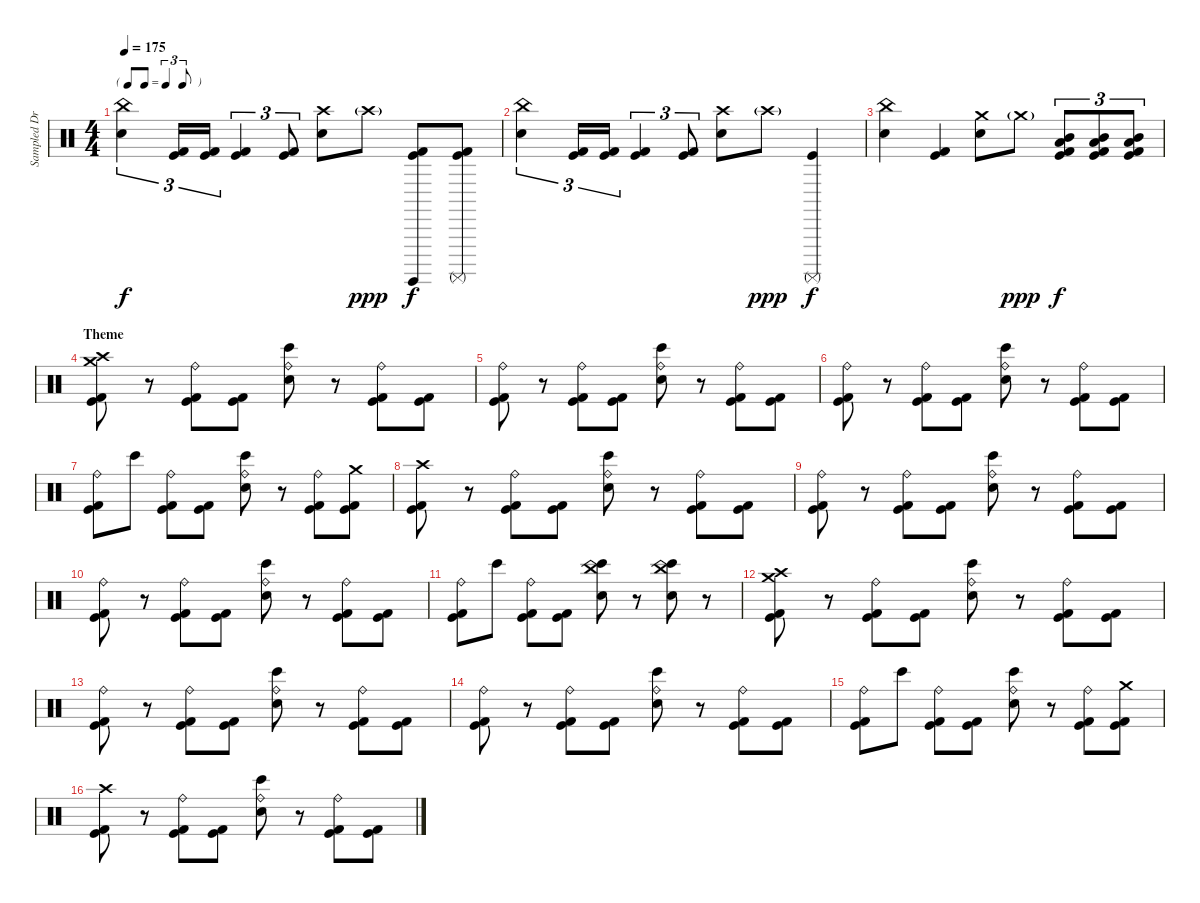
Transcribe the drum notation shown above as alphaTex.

\track ("Sampled Drums" "Sampled Dr") {instrument percussion}
\staff {score}
\articulation defaults
\ts (4 4)
\tf triplet8th
\tempo 175
\clef neutral
\ks c
("China (hit)" "Electric Snare (hit)").4{tu (3 2) dy f} ("Kick (hit) 2" "Kick (hit)").16{tu (3 2)} ("Kick (hit) 2" "Kick (hit)").16{tu (3 2)} ("Kick (hit) 2" "Kick (hit)").4{tu (3 2)} ("Kick (hit) 2" "Kick (hit)").8{tu (3 2)} ("Crash high (hit)" "Electric Snare (hit)").8 "Crash high (hit)"{g}.8{dy ppp} ("Surdo (hit)" "Kick (hit) 2" "Kick (hit)").8{dy f} ("Surdo (mute)" "Kick (hit) 2" "Kick (hit)").8 |
("China (hit)" "Electric Snare (hit)").4{tu (3 2)} ("Kick (hit) 2" "Kick (hit)").16{tu (3 2)} ("Kick (hit) 2" "Kick (hit)").16{tu (3 2)} ("Kick (hit) 2" "Kick (hit)").4{tu (3 2)} ("Kick (hit) 2" "Kick (hit)").8{tu (3 2)} ("Crash high (hit)" "Electric Snare (hit)").8 "Crash high (hit)"{g}.8{dy ppp} ("Surdo (mute)" "Kick (hit)").4{dy f} |
("China (hit)" "Electric Snare (hit)").4 ("Kick (hit) 2" "Kick (hit)").4 ("Crash medium (hit)" "Electric Snare (hit)").8 "Crash medium (hit)"{g}.8{dy ppp} ("Mid Tom (hit)" "Low Tom (hit)" "Kick (hit) 2" "Kick (hit)").8{tu (3 2) dy f} ("Mid Tom (hit)" "Low Tom (hit)" "Kick (hit) 2" "Kick (hit)").8{tu (3 2)} ("Mid Tom (hit)" "Low Tom (hit)" "Kick (hit) 2" "Kick (hit)").8{tu (3 2)} |
\section ("" "Theme")
("Crash medium (hit)" "Crash high (hit)" "Kick (hit)" "Kick (hit) 2").8 r.8 ("Ride (bell)" "Kick (hit)" "Kick (hit) 2").8 ("Kick (hit)" "Kick (hit) 2").8 ("Ride (bell)" "Bongo High (hit)" "Snare (hit) 2").8 r.8 ("Ride (bell)" "Kick (hit)" "Kick (hit) 2").8 ("Kick (hit)" "Kick (hit) 2").8 |
("Ride (bell)" "Kick (hit)" "Kick (hit) 2").8 r.8 ("Ride (bell)" "Kick (hit)" "Kick (hit) 2").8 ("Kick (hit)" "Kick (hit) 2").8 ("Ride (bell)" "Bongo High (hit)" "Snare (hit) 2").8 r.8 ("Ride (bell)" "Kick (hit)" "Kick (hit) 2").8 ("Kick (hit)" "Kick (hit) 2").8 |
("Ride (bell)" "Kick (hit)" "Kick (hit) 2").8 r.8 ("Ride (bell)" "Kick (hit)" "Kick (hit) 2").8 ("Kick (hit)" "Kick (hit) 2").8 ("Ride (bell)" "Bongo High (hit)" "Snare (hit) 2").8 r.8 ("Ride (bell)" "Kick (hit)" "Kick (hit) 2").8 ("Kick (hit)" "Kick (hit) 2").8 |
("Ride (bell)" "Kick (hit)" "Kick (hit) 2").8 "Bongo High (hit)".8 ("Ride (bell)" "Kick (hit)" "Kick (hit) 2").8 ("Kick (hit)" "Kick (hit) 2").8 ("Ride (bell)" "Bongo High (hit)" "Snare (hit) 2").8 r.8 ("Ride (bell)" "Kick (hit)" "Kick (hit) 2").8 ("Crash medium (hit)" "Kick (hit)" "Kick (hit) 2").8 |
("Crash high (hit)" "Kick (hit)" "Kick (hit) 2").8 r.8 ("Ride (bell)" "Kick (hit)" "Kick (hit) 2").8 ("Kick (hit)" "Kick (hit) 2").8 ("Ride (bell)" "Bongo High (hit)" "Snare (hit) 2").8 r.8 ("Ride (bell)" "Kick (hit)" "Kick (hit) 2").8 ("Kick (hit)" "Kick (hit) 2").8 |
("Ride (bell)" "Kick (hit)" "Kick (hit) 2").8 r.8 ("Ride (bell)" "Kick (hit)" "Kick (hit) 2").8 ("Kick (hit)" "Kick (hit) 2").8 ("Ride (bell)" "Bongo High (hit)" "Snare (hit) 2").8 r.8 ("Ride (bell)" "Kick (hit)" "Kick (hit) 2").8 ("Kick (hit)" "Kick (hit) 2").8 |
("Ride (bell)" "Kick (hit)" "Kick (hit) 2").8 r.8 ("Ride (bell)" "Kick (hit)" "Kick (hit) 2").8 ("Kick (hit)" "Kick (hit) 2").8 ("Ride (bell)" "Bongo High (hit)" "Snare (hit) 2").8 r.8 ("Ride (bell)" "Kick (hit)" "Kick (hit) 2").8 ("Kick (hit)" "Kick (hit) 2").8 |
("Ride (bell)" "Kick (hit)" "Kick (hit) 2").8 "Bongo High (hit)".8 ("Ride (bell)" "Kick (hit)" "Kick (hit) 2").8 ("Kick (hit)" "Kick (hit) 2").8 ("China (hit)" "Bongo High (hit)" "Snare (hit) 2").8 r.8 ("China (hit)" "Bongo High (hit)" "Snare (hit) 2").8 r.8 |
("Crash medium (hit)" "Crash high (hit)" "Kick (hit)" "Kick (hit) 2").8 r.8 ("Ride (bell)" "Kick (hit)" "Kick (hit) 2").8 ("Kick (hit)" "Kick (hit) 2").8 ("Ride (bell)" "Bongo High (hit)" "Snare (hit) 2").8 r.8 ("Ride (bell)" "Kick (hit)" "Kick (hit) 2").8 ("Kick (hit)" "Kick (hit) 2").8 |
("Ride (bell)" "Kick (hit)" "Kick (hit) 2").8 r.8 ("Ride (bell)" "Kick (hit)" "Kick (hit) 2").8 ("Kick (hit)" "Kick (hit) 2").8 ("Ride (bell)" "Bongo High (hit)" "Snare (hit) 2").8 r.8 ("Ride (bell)" "Kick (hit)" "Kick (hit) 2").8 ("Kick (hit)" "Kick (hit) 2").8 |
("Ride (bell)" "Kick (hit)" "Kick (hit) 2").8 r.8 ("Ride (bell)" "Kick (hit)" "Kick (hit) 2").8 ("Kick (hit)" "Kick (hit) 2").8 ("Ride (bell)" "Bongo High (hit)" "Snare (hit) 2").8 r.8 ("Ride (bell)" "Kick (hit)" "Kick (hit) 2").8 ("Kick (hit)" "Kick (hit) 2").8 |
("Ride (bell)" "Kick (hit)" "Kick (hit) 2").8 "Bongo High (hit)".8 ("Ride (bell)" "Kick (hit)" "Kick (hit) 2").8 ("Kick (hit)" "Kick (hit) 2").8 ("Ride (bell)" "Bongo High (hit)" "Snare (hit) 2").8 r.8 ("Ride (bell)" "Kick (hit)" "Kick (hit) 2").8 ("Crash medium (hit)" "Kick (hit)" "Kick (hit) 2").8 |
("Crash high (hit)" "Kick (hit)" "Kick (hit) 2").8 r.8 ("Ride (bell)" "Kick (hit)" "Kick (hit) 2").8 ("Kick (hit)" "Kick (hit) 2").8 ("Ride (bell)" "Bongo High (hit)" "Snare (hit) 2").8 r.8 ("Ride (bell)" "Kick (hit)" "Kick (hit) 2").8 ("Kick (hit)" "Kick (hit) 2").8
